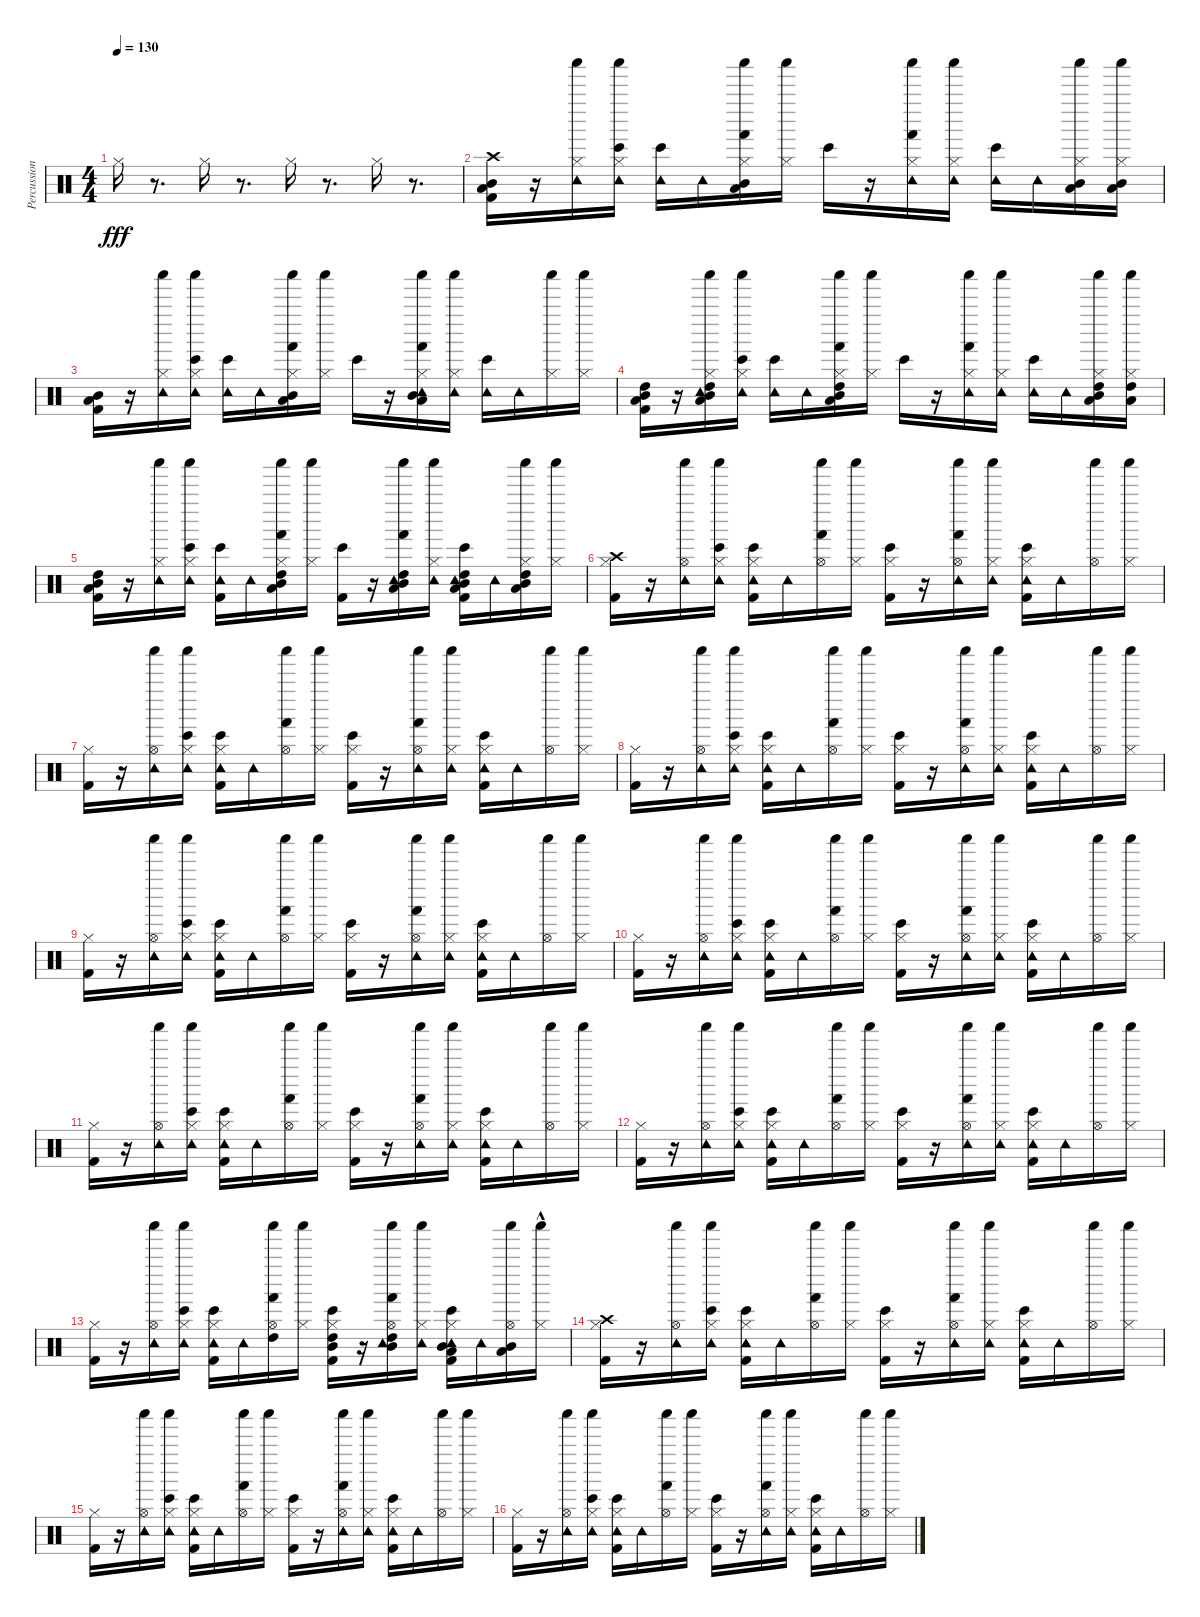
\track ("Percussions" "Percussion") {instrument percussion}
\staff {score}
\articulation defaults
\ts (4 4)
\tempo 130
\clef neutral
\ks c "Hi-Hat (closed)".16{dy fff}
r.8{d} "Hi-Hat (closed)".16 r.8{d} "Hi-Hat (closed)".16 r.8{d} "Hi-Hat (closed)".16 r.8{d} |
("Crash high (hit)" "Low Tom (hit)" "Mid Tom (hit)" "Kick (hit) 2").16 r.16 ("Tambourine (hit)" "Shaker (hit)" "Hi-Hat (closed)").16 ("Tambourine (hit)" "Shaker (hit)" "Bongo High (hit)" "Hi-Hat (closed)").16 ("Tambourine (hit)" "Bongo High (hit)").16 "Tambourine (hit)".16 ("Low Tom (hit)" "Mid Tom (hit)" "Shaker (hit)" "Hand (hit)" "Hi-Hat (closed)").16 ("Shaker (hit)" "Hi-Hat (closed)").16 "Bongo High (hit)".16 r.16 ("Tambourine (hit)" "Shaker (hit)" "Hand (hit)" "Hi-Hat (closed)").16 ("Tambourine (hit)" "Shaker (hit)" "Hi-Hat (closed)").16 ("Tambourine (hit)" "Bongo High (hit)").16 "Tambourine (hit)".16 ("Low Tom (hit)" "Mid Tom (hit)" "Shaker (hit)" "Hi-Hat (closed)").16 ("Low Tom (hit)" "Mid Tom (hit)" "Shaker (hit)" "Hi-Hat (closed)").16 |
("Mid Tom (hit)" "Low Tom (hit)" "Kick (hit) 2").16 r.16 ("Tambourine (hit)" "Shaker (hit)" "Hi-Hat (closed)").16 ("Tambourine (hit)" "Shaker (hit)" "Bongo High (hit)" "Hi-Hat (closed)").16 ("Tambourine (hit)" "Bongo High (hit)").16 "Tambourine (hit)".16 ("Low Tom (hit)" "Mid Tom (hit)" "Shaker (hit)" "Hand (hit)" "Hi-Hat (closed)").16 ("Shaker (hit)" "Hi-Hat (closed)").16 "Bongo High (hit)".16 r.16 ("Tambourine (hit)" "Low Tom (hit)" "Mid Tom (hit)" "Shaker (hit)" "Hand (hit)" "Hi-Hat (closed)").16 ("Tambourine (hit)" "Shaker (hit)" "Hi-Hat (closed)").16 ("Tambourine (hit)" "Bongo High (hit)").16 "Tambourine (hit)".16 ("Shaker (hit)" "Hi-Hat (closed)").16 ("Shaker (hit)" "Hi-Hat (closed)").16 |
("Mid Tom (hit)" "Low Tom (hit)" "High Tom (hit)" "Kick (hit) 2").16 r.16 ("Tambourine (hit)" "Mid Tom (hit)" "Low Tom (hit)" "High Tom (hit)" "Shaker (hit)" "Hi-Hat (closed)").16 ("Tambourine (hit)" "Shaker (hit)" "Bongo High (hit)" "Hi-Hat (closed)").16 ("Tambourine (hit)" "Bongo High (hit)").16 "Tambourine (hit)".16 ("Mid Tom (hit)" "Low Tom (hit)" "High Tom (hit)" "Shaker (hit)" "Hand (hit)" "Hi-Hat (closed)").16 ("Shaker (hit)" "Hi-Hat (closed)").16 "Bongo High (hit)".16 r.16 ("Tambourine (hit)" "Shaker (hit)" "Hand (hit)" "Hi-Hat (closed)").16 ("Tambourine (hit)" "Shaker (hit)" "Hi-Hat (closed)").16 ("Tambourine (hit)" "Bongo High (hit)").16 "Tambourine (hit)".16 ("High Tom (hit)" "Mid Tom (hit)" "Low Tom (hit)" "Shaker (hit)" "Hi-Hat (closed)").16 ("High Tom (hit)" "Low Tom (hit)" "Shaker (hit)" "Hi-Hat (closed)").16 |
("High Tom (hit)" "Mid Tom (hit)" "Low Tom (hit)" "Kick (hit) 2").16 r.16 ("Tambourine (hit)" "Shaker (hit)" "Hi-Hat (closed)").16 ("Tambourine (hit)" "Shaker (hit)" "Bongo High (hit)" "Hi-Hat (closed)").16 ("Tambourine (hit)" "Kick (hit) 2" "Bongo High (hit)").16 "Tambourine (hit)".16 ("High Tom (hit)" "Mid Tom (hit)" "Low Tom (hit)" "Shaker (hit)" "Hand (hit)" "Hi-Hat (closed)").16 ("Shaker (hit)" "Hi-Hat (closed)").16 ("Kick (hit) 2" "Bongo High (hit)").16 r.16 ("Tambourine (hit)" "High Tom (hit)" "Mid Tom (hit)" "Low Tom (hit)" "Shaker (hit)" "Hand (hit)").16 ("Tambourine (hit)" "Shaker (hit)" "Hi-Hat (closed)").16 ("Tambourine (hit)" "Kick (hit) 2" "High Tom (hit)" "Mid Tom (hit)" "Low Tom (hit)" "Bongo High (hit)").16 "Tambourine (hit)".16 ("High Tom (hit)" "Mid Tom (hit)" "Low Tom (hit)" "Shaker (hit)" "Hi-Hat (closed)").16 ("Shaker (hit)" "Hi-Hat (closed)").16 |
("Hi-Hat (closed)" "Kick (hit) 2" "Crash high (hit)").16 r.16 ("Hi-Hat (open)" "Tambourine (hit)" "Shaker (hit)").16 ("Tambourine (hit)" "Shaker (hit)" "Bongo High (hit)" "Hi-Hat (closed)").16 ("Hi-Hat (closed)" "Kick (hit) 2" "Tambourine (hit)" "Bongo High (hit)").16 "Tambourine (hit)".16 ("Hi-Hat (open)" "Shaker (hit)" "Hand (hit)").16 ("Shaker (hit)" "Hi-Hat (closed)").16 ("Hi-Hat (closed)" "Kick (hit) 2" "Bongo High (hit)").16 r.16 ("Hi-Hat (open)" "Tambourine (hit)" "Shaker (hit)" "Hand (hit)").16 ("Tambourine (hit)" "Shaker (hit)" "Hi-Hat (closed)").16 ("Hi-Hat (closed)" "Kick (hit) 2" "Tambourine (hit)" "Bongo High (hit)").16 "Tambourine (hit)".16 ("Hi-Hat (open)" "Shaker (hit)").16 ("Shaker (hit)" "Hi-Hat (closed)").16 |
("Hi-Hat (closed)" "Kick (hit) 2").16 r.16 ("Hi-Hat (open)" "Tambourine (hit)" "Shaker (hit)").16 ("Tambourine (hit)" "Shaker (hit)" "Bongo High (hit)" "Hi-Hat (closed)").16 ("Hi-Hat (closed)" "Kick (hit) 2" "Tambourine (hit)" "Bongo High (hit)").16 "Tambourine (hit)".16 ("Hi-Hat (open)" "Shaker (hit)" "Hand (hit)").16 ("Shaker (hit)" "Hi-Hat (closed)").16 ("Hi-Hat (closed)" "Kick (hit) 2" "Bongo High (hit)").16 r.16 ("Hi-Hat (open)" "Tambourine (hit)" "Shaker (hit)" "Hand (hit)").16 ("Tambourine (hit)" "Shaker (hit)" "Hi-Hat (closed)").16 ("Hi-Hat (closed)" "Kick (hit) 2" "Tambourine (hit)" "Bongo High (hit)").16 "Tambourine (hit)".16 ("Hi-Hat (open)" "Shaker (hit)").16 ("Shaker (hit)" "Hi-Hat (closed)").16 |
("Hi-Hat (closed)" "Kick (hit) 2").16 r.16 ("Hi-Hat (open)" "Tambourine (hit)" "Shaker (hit)").16 ("Tambourine (hit)" "Shaker (hit)" "Bongo High (hit)" "Hi-Hat (closed)").16 ("Hi-Hat (closed)" "Kick (hit) 2" "Tambourine (hit)" "Bongo High (hit)").16 "Tambourine (hit)".16 ("Hi-Hat (open)" "Shaker (hit)" "Hand (hit)").16 ("Shaker (hit)" "Hi-Hat (closed)").16 ("Hi-Hat (closed)" "Kick (hit) 2" "Bongo High (hit)").16 r.16 ("Hi-Hat (open)" "Tambourine (hit)" "Shaker (hit)" "Hand (hit)").16 ("Tambourine (hit)" "Shaker (hit)" "Hi-Hat (closed)").16 ("Hi-Hat (closed)" "Kick (hit) 2" "Tambourine (hit)" "Bongo High (hit)").16 "Tambourine (hit)".16 ("Hi-Hat (open)" "Shaker (hit)").16 ("Shaker (hit)" "Hi-Hat (closed)").16 |
("Hi-Hat (closed)" "Kick (hit) 2").16 r.16 ("Hi-Hat (open)" "Tambourine (hit)" "Shaker (hit)").16 ("Tambourine (hit)" "Shaker (hit)" "Bongo High (hit)" "Hi-Hat (closed)").16 ("Hi-Hat (closed)" "Kick (hit) 2" "Tambourine (hit)" "Bongo High (hit)").16 "Tambourine (hit)".16 ("Hi-Hat (open)" "Shaker (hit)" "Hand (hit)").16 ("Shaker (hit)" "Hi-Hat (closed)").16 ("Hi-Hat (closed)" "Kick (hit) 2" "Bongo High (hit)").16 r.16 ("Hi-Hat (open)" "Tambourine (hit)" "Shaker (hit)" "Hand (hit)").16 ("Tambourine (hit)" "Shaker (hit)" "Hi-Hat (closed)").16 ("Hi-Hat (closed)" "Kick (hit) 2" "Tambourine (hit)" "Bongo High (hit)").16 "Tambourine (hit)".16 ("Hi-Hat (open)" "Shaker (hit)").16 ("Shaker (hit)" "Hi-Hat (closed)").16 |
("Hi-Hat (closed)" "Kick (hit) 2").16 r.16 ("Hi-Hat (open)" "Tambourine (hit)" "Shaker (hit)").16 ("Tambourine (hit)" "Shaker (hit)" "Bongo High (hit)" "Hi-Hat (closed)").16 ("Hi-Hat (closed)" "Kick (hit) 2" "Tambourine (hit)" "Bongo High (hit)").16 "Tambourine (hit)".16 ("Hi-Hat (open)" "Shaker (hit)" "Hand (hit)").16 ("Shaker (hit)" "Hi-Hat (closed)").16 ("Hi-Hat (closed)" "Kick (hit) 2" "Bongo High (hit)").16 r.16 ("Hi-Hat (open)" "Tambourine (hit)" "Shaker (hit)" "Hand (hit)").16 ("Tambourine (hit)" "Shaker (hit)" "Hi-Hat (closed)").16 ("Hi-Hat (closed)" "Kick (hit) 2" "Tambourine (hit)" "Bongo High (hit)").16 "Tambourine (hit)".16 ("Hi-Hat (open)" "Shaker (hit)").16 ("Shaker (hit)" "Hi-Hat (closed)").16 |
("Hi-Hat (closed)" "Kick (hit) 2").16 r.16 ("Hi-Hat (open)" "Tambourine (hit)" "Shaker (hit)").16 ("Tambourine (hit)" "Shaker (hit)" "Bongo High (hit)" "Hi-Hat (closed)").16 ("Hi-Hat (closed)" "Kick (hit) 2" "Tambourine (hit)" "Bongo High (hit)").16 "Tambourine (hit)".16 ("Hi-Hat (open)" "Shaker (hit)" "Hand (hit)").16 ("Shaker (hit)" "Hi-Hat (closed)").16 ("Hi-Hat (closed)" "Kick (hit) 2" "Bongo High (hit)").16 r.16 ("Hi-Hat (open)" "Tambourine (hit)" "Shaker (hit)" "Hand (hit)").16 ("Tambourine (hit)" "Shaker (hit)" "Hi-Hat (closed)").16 ("Hi-Hat (closed)" "Kick (hit) 2" "Tambourine (hit)" "Bongo High (hit)").16 "Tambourine (hit)".16 ("Hi-Hat (open)" "Shaker (hit)").16 ("Shaker (hit)" "Hi-Hat (closed)").16 |
("Hi-Hat (closed)" "Kick (hit) 2").16 r.16 ("Hi-Hat (open)" "Tambourine (hit)" "Shaker (hit)").16 ("Tambourine (hit)" "Shaker (hit)" "Bongo High (hit)" "Hi-Hat (closed)").16 ("Hi-Hat (closed)" "Kick (hit) 2" "Tambourine (hit)" "Bongo High (hit)").16 "Tambourine (hit)".16 ("Hi-Hat (open)" "Shaker (hit)" "Hand (hit)").16 ("Shaker (hit)" "Hi-Hat (closed)").16 ("Hi-Hat (closed)" "Kick (hit) 2" "Bongo High (hit)").16 r.16 ("Hi-Hat (open)" "Tambourine (hit)" "Shaker (hit)" "Hand (hit)").16 ("Tambourine (hit)" "Shaker (hit)" "Hi-Hat (closed)").16 ("Hi-Hat (closed)" "Kick (hit) 2" "Tambourine (hit)" "Bongo High (hit)").16 "Tambourine (hit)".16 ("Hi-Hat (open)" "Shaker (hit)").16 ("Shaker (hit)" "Hi-Hat (closed)").16 |
("Hi-Hat (closed)" "Kick (hit) 2").16 r.16 ("Hi-Hat (open)" "Tambourine (hit)" "Shaker (hit)").16 ("Tambourine (hit)" "Shaker (hit)" "Bongo High (hit)" "Hi-Hat (closed)").16 ("Hi-Hat (closed)" "Kick (hit) 2" "Tambourine (hit)" "Bongo High (hit)").16 "Tambourine (hit)".16 ("High Tom (hit)" "Hi-Hat (open)" "Shaker (hit)" "Hand (hit)").16 ("Shaker (hit)" "Hi-Hat (closed)").16 ("Mid Tom (hit)" "High Tom (hit)" "Hi-Hat (closed)" "Kick (hit) 2" "Bongo High (hit)").16 r.16 ("Mid Tom (hit)" "High Tom (hit)" "Hi-Hat (open)" "Tambourine (hit)" "Shaker (hit)" "Hand (hit)").16 ("Tambourine (hit)" "Shaker (hit)" "Hi-Hat (closed)").16 ("Mid Tom (hit)" "Low Tom (hit)" "Hi-Hat (closed)" "Kick (hit) 2" "Tambourine (hit)" "Bongo High (hit)").16 "Tambourine (hit)".16 ("Mid Tom (hit)" "Low Tom (hit)" "Hi-Hat (open)" "Shaker (hit)").16 ("Shaker (hit)"{hac} "Hi-Hat (closed)").16 |
("Crash high (hit)" "Kick (hit) 2" "Hi-Hat (closed)").16 r.16 ("Hi-Hat (open)" "Tambourine (hit)" "Shaker (hit)").16 ("Tambourine (hit)" "Shaker (hit)" "Bongo High (hit)" "Hi-Hat (closed)").16 ("Hi-Hat (closed)" "Kick (hit) 2" "Tambourine (hit)" "Bongo High (hit)").16 "Tambourine (hit)".16 ("Hi-Hat (open)" "Shaker (hit)" "Hand (hit)").16 ("Shaker (hit)" "Hi-Hat (closed)").16 ("Hi-Hat (closed)" "Kick (hit) 2" "Bongo High (hit)").16 r.16 ("Hi-Hat (open)" "Tambourine (hit)" "Shaker (hit)" "Hand (hit)").16 ("Tambourine (hit)" "Shaker (hit)" "Hi-Hat (closed)").16 ("Hi-Hat (closed)" "Kick (hit) 2" "Tambourine (hit)" "Bongo High (hit)").16 "Tambourine (hit)".16 ("Hi-Hat (open)" "Shaker (hit)").16 ("Shaker (hit)" "Hi-Hat (closed)").16 |
("Hi-Hat (closed)" "Kick (hit) 2").16 r.16 ("Hi-Hat (open)" "Tambourine (hit)" "Shaker (hit)").16 ("Tambourine (hit)" "Shaker (hit)" "Bongo High (hit)" "Hi-Hat (closed)").16 ("Hi-Hat (closed)" "Kick (hit) 2" "Tambourine (hit)" "Bongo High (hit)").16 "Tambourine (hit)".16 ("Hi-Hat (open)" "Shaker (hit)" "Hand (hit)").16 ("Shaker (hit)" "Hi-Hat (closed)").16 ("Hi-Hat (closed)" "Kick (hit) 2" "Bongo High (hit)").16 r.16 ("Hi-Hat (open)" "Tambourine (hit)" "Shaker (hit)" "Hand (hit)").16 ("Tambourine (hit)" "Shaker (hit)" "Hi-Hat (closed)").16 ("Hi-Hat (closed)" "Kick (hit) 2" "Tambourine (hit)" "Bongo High (hit)").16 "Tambourine (hit)".16 ("Hi-Hat (open)" "Shaker (hit)").16 ("Shaker (hit)" "Hi-Hat (closed)").16 |
("Hi-Hat (closed)" "Kick (hit) 2").16 r.16 ("Hi-Hat (open)" "Tambourine (hit)" "Shaker (hit)").16 ("Tambourine (hit)" "Shaker (hit)" "Bongo High (hit)" "Hi-Hat (closed)").16 ("Hi-Hat (closed)" "Kick (hit) 2" "Tambourine (hit)" "Bongo High (hit)").16 "Tambourine (hit)".16 ("Hi-Hat (open)" "Shaker (hit)" "Hand (hit)").16 ("Shaker (hit)" "Hi-Hat (closed)").16 ("Hi-Hat (closed)" "Kick (hit) 2" "Bongo High (hit)").16 r.16 ("Hi-Hat (open)" "Tambourine (hit)" "Shaker (hit)" "Hand (hit)").16 ("Tambourine (hit)" "Shaker (hit)" "Hi-Hat (closed)").16 ("Hi-Hat (closed)" "Kick (hit) 2" "Tambourine (hit)" "Bongo High (hit)").16 "Tambourine (hit)".16 ("Hi-Hat (open)" "Shaker (hit)").16 ("Shaker (hit)" "Hi-Hat (closed)").16
